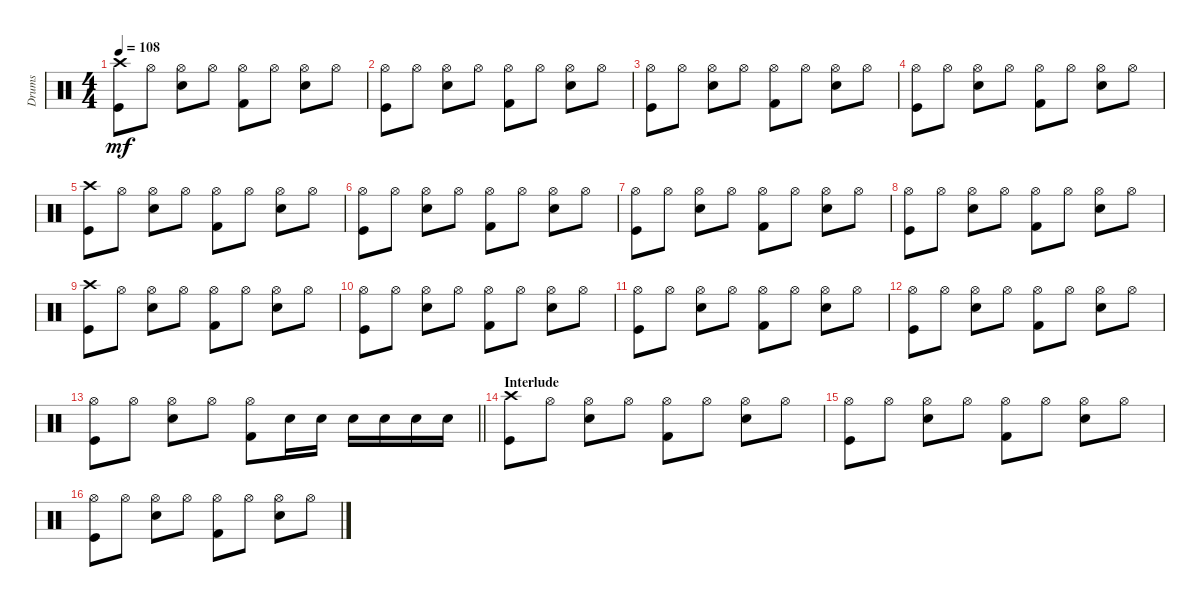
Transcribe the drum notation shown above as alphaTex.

\track ("Drums" "Drums") {instrument percussion}
\staff {score}
\articulation defaults
\ts (4 4)
\tempo 108
\clef neutral
\ks c
("Crash high (hit)" "Kick (hit)").8{dy mf} "Hi-Hat (open)".8 ("Hi-Hat (open)" "Snare (hit) 2").8 "Hi-Hat (open)".8 ("Hi-Hat (open)" "Kick (hit) 2").8 "Hi-Hat (open)".8 ("Hi-Hat (open)" "Snare (hit) 2").8 "Hi-Hat (open)".8 |
("Hi-Hat (open)" "Kick (hit)").8 "Hi-Hat (open)".8 ("Hi-Hat (open)" "Snare (hit) 2").8 "Hi-Hat (open)".8 ("Hi-Hat (open)" "Kick (hit) 2").8 "Hi-Hat (open)".8 ("Hi-Hat (open)" "Snare (hit) 2").8 "Hi-Hat (open)".8 |
("Hi-Hat (open)" "Kick (hit)").8 "Hi-Hat (open)".8 ("Hi-Hat (open)" "Snare (hit) 2").8 "Hi-Hat (open)".8 ("Hi-Hat (open)" "Kick (hit) 2").8 "Hi-Hat (open)".8 ("Hi-Hat (open)" "Snare (hit) 2").8 "Hi-Hat (open)".8 |
("Hi-Hat (open)" "Kick (hit)").8 "Hi-Hat (open)".8 ("Hi-Hat (open)" "Snare (hit) 2").8 "Hi-Hat (open)".8 ("Hi-Hat (open)" "Kick (hit) 2").8 "Hi-Hat (open)".8 ("Hi-Hat (open)" "Snare (hit) 2").8 "Hi-Hat (open)".8 |
("Crash high (hit)" "Kick (hit)").8 "Hi-Hat (open)".8 ("Hi-Hat (open)" "Snare (hit) 2").8 "Hi-Hat (open)".8 ("Hi-Hat (open)" "Kick (hit) 2").8 "Hi-Hat (open)".8 ("Hi-Hat (open)" "Snare (hit) 2").8 "Hi-Hat (open)".8 |
("Hi-Hat (open)" "Kick (hit)").8 "Hi-Hat (open)".8 ("Hi-Hat (open)" "Snare (hit) 2").8 "Hi-Hat (open)".8 ("Hi-Hat (open)" "Kick (hit) 2").8 "Hi-Hat (open)".8 ("Hi-Hat (open)" "Snare (hit) 2").8 "Hi-Hat (open)".8 |
("Hi-Hat (open)" "Kick (hit)").8 "Hi-Hat (open)".8 ("Hi-Hat (open)" "Snare (hit) 2").8 "Hi-Hat (open)".8 ("Hi-Hat (open)" "Kick (hit) 2").8 "Hi-Hat (open)".8 ("Hi-Hat (open)" "Snare (hit) 2").8 "Hi-Hat (open)".8 |
("Hi-Hat (open)" "Kick (hit)").8 "Hi-Hat (open)".8 ("Hi-Hat (open)" "Snare (hit) 2").8 "Hi-Hat (open)".8 ("Hi-Hat (open)" "Kick (hit) 2").8 "Hi-Hat (open)".8 ("Hi-Hat (open)" "Snare (hit) 2").8 "Hi-Hat (open)".8 |
("Crash high (hit)" "Kick (hit)").8 "Hi-Hat (open)".8 ("Hi-Hat (open)" "Snare (hit) 2").8 "Hi-Hat (open)".8 ("Hi-Hat (open)" "Kick (hit) 2").8 "Hi-Hat (open)".8 ("Hi-Hat (open)" "Snare (hit) 2").8 "Hi-Hat (open)".8 |
("Hi-Hat (open)" "Kick (hit)").8 "Hi-Hat (open)".8 ("Hi-Hat (open)" "Snare (hit) 2").8 "Hi-Hat (open)".8 ("Hi-Hat (open)" "Kick (hit) 2").8 "Hi-Hat (open)".8 ("Hi-Hat (open)" "Snare (hit) 2").8 "Hi-Hat (open)".8 |
("Hi-Hat (open)" "Kick (hit)").8 "Hi-Hat (open)".8 ("Hi-Hat (open)" "Snare (hit) 2").8 "Hi-Hat (open)".8 ("Hi-Hat (open)" "Kick (hit) 2").8 "Hi-Hat (open)".8 ("Hi-Hat (open)" "Snare (hit) 2").8 "Hi-Hat (open)".8 |
("Hi-Hat (open)" "Kick (hit)").8 "Hi-Hat (open)".8 ("Hi-Hat (open)" "Snare (hit) 2").8 "Hi-Hat (open)".8 ("Hi-Hat (open)" "Kick (hit) 2").8 "Hi-Hat (open)".8 ("Hi-Hat (open)" "Snare (hit) 2").8 "Hi-Hat (open)".8 |
\barLineRight lightlight
("Hi-Hat (open)" "Kick (hit)").8 "Hi-Hat (open)".8 ("Hi-Hat (open)" "Snare (hit) 2").8 "Hi-Hat (open)".8 ("Hi-Hat (open)" "Kick (hit) 2").8 "Snare (hit) 2".16 "Snare (hit) 2".16 "Snare (hit) 2".16 "Snare (hit) 2".16 "Snare (hit) 2".16 "Snare (hit) 2".16 |
\section ("" "Interlude")
("Crash high (hit)" "Kick (hit)").8 "Hi-Hat (open)".8 ("Hi-Hat (open)" "Snare (hit) 2").8 "Hi-Hat (open)".8 ("Hi-Hat (open)" "Kick (hit) 2").8 "Hi-Hat (open)".8 ("Hi-Hat (open)" "Snare (hit) 2").8 "Hi-Hat (open)".8 |
("Hi-Hat (open)" "Kick (hit)").8 "Hi-Hat (open)".8 ("Hi-Hat (open)" "Snare (hit) 2").8 "Hi-Hat (open)".8 ("Hi-Hat (open)" "Kick (hit) 2").8 "Hi-Hat (open)".8 ("Hi-Hat (open)" "Snare (hit) 2").8 "Hi-Hat (open)".8 |
("Hi-Hat (open)" "Kick (hit)").8 "Hi-Hat (open)".8 ("Hi-Hat (open)" "Snare (hit) 2").8 "Hi-Hat (open)".8 ("Hi-Hat (open)" "Kick (hit) 2").8 "Hi-Hat (open)".8 ("Hi-Hat (open)" "Snare (hit) 2").8 "Hi-Hat (open)".8
